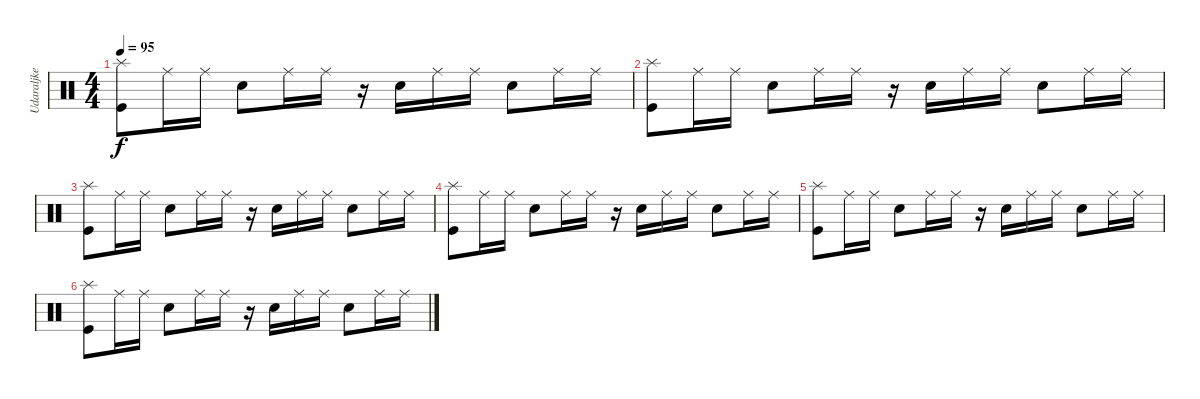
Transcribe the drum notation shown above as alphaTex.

\track ("Udaraljke" "Udaraljke") {instrument percussion}
\staff {score}
\articulation defaults
\ts (4 4)
\tempo 95
\clef neutral
\ks c
("Splash (hit)" "Kick (hit)").8{dy f volume 13} "Ride (middle)".16 "Ride (middle)".16 "Electric Snare (hit)".8 "Ride (middle)".16 "Ride (middle)".16 r.16 "Electric Snare (hit)".16 "Ride (middle)".16 "Ride (middle)".16 "Electric Snare (hit)".8 "Ride (middle)".16 "Ride (middle)".16 |
("Splash (hit)" "Kick (hit)").8 "Ride (middle)".16 "Ride (middle)".16 "Electric Snare (hit)".8 "Ride (middle)".16 "Ride (middle)".16 r.16 "Electric Snare (hit)".16 "Ride (middle)".16 "Ride (middle)".16 "Electric Snare (hit)".8 "Ride (middle)".16 "Ride (middle)".16 |
("Splash (hit)" "Kick (hit)").8 "Ride (middle)".16 "Ride (middle)".16 "Electric Snare (hit)".8 "Ride (middle)".16 "Ride (middle)".16 r.16 "Electric Snare (hit)".16 "Ride (middle)".16 "Ride (middle)".16 "Electric Snare (hit)".8 "Ride (middle)".16 "Ride (middle)".16 |
("Splash (hit)" "Kick (hit)").8 "Ride (middle)".16 "Ride (middle)".16 "Electric Snare (hit)".8 "Ride (middle)".16 "Ride (middle)".16 r.16 "Electric Snare (hit)".16 "Ride (middle)".16 "Ride (middle)".16 "Electric Snare (hit)".8 "Ride (middle)".16 "Ride (middle)".16 |
("Splash (hit)" "Kick (hit)").8 "Ride (middle)".16 "Ride (middle)".16 "Electric Snare (hit)".8 "Ride (middle)".16 "Ride (middle)".16 r.16 "Electric Snare (hit)".16 "Ride (middle)".16 "Ride (middle)".16 "Electric Snare (hit)".8 "Ride (middle)".16 "Ride (middle)".16 |
("Splash (hit)" "Kick (hit)").8 "Ride (middle)".16 "Ride (middle)".16 "Electric Snare (hit)".8 "Ride (middle)".16 "Ride (middle)".16 r.16 "Electric Snare (hit)".16 "Ride (middle)".16 "Ride (middle)".16 "Electric Snare (hit)".8 "Ride (middle)".16 "Ride (middle)".16
